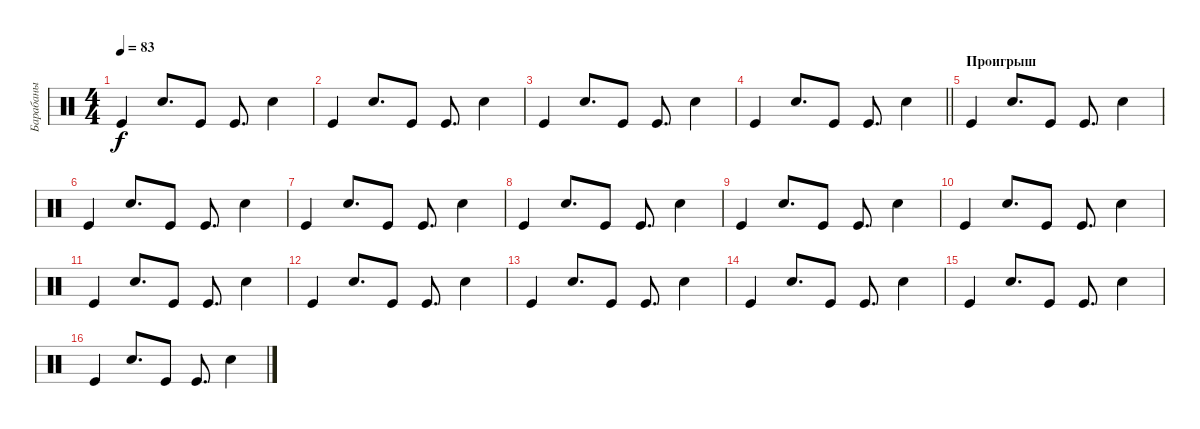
\track ("Барабаны" "Барабаны") {instrument percussion}
\staff {score}
\articulation defaults
\ts (4 4)
\tempo 83
\clef neutral
\ks c "Kick (hit)".4{dy f} "Snare (hit) 2".8{d} "Kick (hit)".8 "Kick (hit)".8{d} "Snare (hit) 2".4
|
"Kick (hit)".4 "Snare (hit) 2".8{d} "Kick (hit)".8 "Kick (hit)".8{d} "Snare (hit) 2".4 |
"Kick (hit)".4 "Snare (hit) 2".8{d} "Kick (hit)".8 "Kick (hit)".8{d} "Snare (hit) 2".4 |
\barLineRight lightlight "Kick (hit)".4 "Snare (hit) 2".8{d} "Kick (hit)".8 "Kick (hit)".8{d} "Snare (hit) 2".4
|
\section ("" "Проигрыш")
"Kick (hit)".4 "Snare (hit) 2".8{d} "Kick (hit)".8 "Kick (hit)".8{d} "Snare (hit) 2".4 |
"Kick (hit)".4 "Snare (hit) 2".8{d} "Kick (hit)".8 "Kick (hit)".8{d} "Snare (hit) 2".4 |
"Kick (hit)".4 "Snare (hit) 2".8{d} "Kick (hit)".8 "Kick (hit)".8{d} "Snare (hit) 2".4 |
"Kick (hit)".4 "Snare (hit) 2".8{d} "Kick (hit)".8 "Kick (hit)".8{d} "Snare (hit) 2".4 |
"Kick (hit)".4 "Snare (hit) 2".8{d} "Kick (hit)".8 "Kick (hit)".8{d} "Snare (hit) 2".4 |
"Kick (hit)".4 "Snare (hit) 2".8{d} "Kick (hit)".8 "Kick (hit)".8{d} "Snare (hit) 2".4 |
"Kick (hit)".4 "Snare (hit) 2".8{d} "Kick (hit)".8 "Kick (hit)".8{d} "Snare (hit) 2".4 |
"Kick (hit)".4 "Snare (hit) 2".8{d} "Kick (hit)".8 "Kick (hit)".8{d} "Snare (hit) 2".4 |
"Kick (hit)".4 "Snare (hit) 2".8{d} "Kick (hit)".8 "Kick (hit)".8{d} "Snare (hit) 2".4 |
"Kick (hit)".4 "Snare (hit) 2".8{d} "Kick (hit)".8 "Kick (hit)".8{d} "Snare (hit) 2".4 |
"Kick (hit)".4 "Snare (hit) 2".8{d} "Kick (hit)".8 "Kick (hit)".8{d} "Snare (hit) 2".4 |
"Kick (hit)".4 "Snare (hit) 2".8{d} "Kick (hit)".8 "Kick (hit)".8{d} "Snare (hit) 2".4
